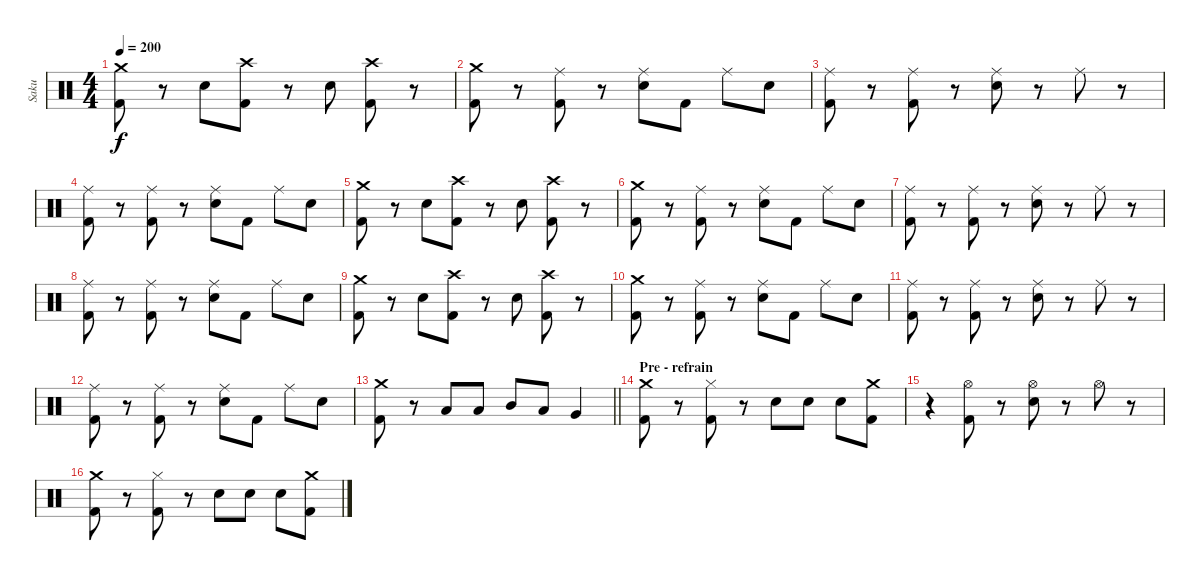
\track ("Saku" "Saku") {instrument percussion}
\staff {score}
\articulation defaults
\ts (4 4)
\tempo 200
\clef neutral
\ks c
("Crash medium (hit)" "Kick (hit) 2").8{dy f} r.8 "Electric Snare (hit)".8 ("Crash high (hit)" "Kick (hit) 2").8 r.8 "Electric Snare (hit)".8 ("Crash high (hit)" "Kick (hit) 2").8 r.8 |
("Crash medium (hit)" "Kick (hit) 2").8 r.8 ("Ride (middle)" "Kick (hit) 2").8 r.8 ("Ride (middle)" "Electric Snare (hit)").8 "Kick (hit) 2".8 "Ride (middle)".8 "Electric Snare (hit)".8 |
("Ride (middle)" "Kick (hit) 2").8 r.8 ("Ride (middle)" "Kick (hit) 2").8 r.8 ("Ride (middle)" "Electric Snare (hit)").8 r.8 "Ride (middle)".8 r.8 |
("Ride (middle)" "Kick (hit) 2").8 r.8 ("Ride (middle)" "Kick (hit) 2").8 r.8 ("Ride (middle)" "Electric Snare (hit)").8 "Kick (hit) 2".8 "Ride (middle)".8 "Electric Snare (hit)".8 |
("Crash medium (hit)" "Kick (hit) 2").8 r.8 "Electric Snare (hit)".8 ("Crash high (hit)" "Kick (hit) 2").8 r.8 "Electric Snare (hit)".8 ("Crash high (hit)" "Kick (hit) 2").8 r.8 |
("Crash medium (hit)" "Kick (hit) 2").8 r.8 ("Ride (middle)" "Kick (hit) 2").8 r.8 ("Ride (middle)" "Electric Snare (hit)").8 "Kick (hit) 2".8 "Ride (middle)".8 "Electric Snare (hit)".8 |
("Ride (middle)" "Kick (hit) 2").8 r.8 ("Ride (middle)" "Kick (hit) 2").8 r.8 ("Ride (middle)" "Electric Snare (hit)").8 r.8 "Ride (middle)".8 r.8 |
("Ride (middle)" "Kick (hit) 2").8 r.8 ("Ride (middle)" "Kick (hit) 2").8 r.8 ("Ride (middle)" "Electric Snare (hit)").8 "Kick (hit) 2".8 "Ride (middle)".8 "Electric Snare (hit)".8 |
("Crash medium (hit)" "Kick (hit) 2").8 r.8 "Electric Snare (hit)".8 ("Crash high (hit)" "Kick (hit) 2").8 r.8 "Electric Snare (hit)".8 ("Crash high (hit)" "Kick (hit) 2").8 r.8 |
("Crash medium (hit)" "Kick (hit) 2").8 r.8 ("Ride (middle)" "Kick (hit) 2").8 r.8 ("Ride (middle)" "Electric Snare (hit)").8 "Kick (hit) 2".8 "Ride (middle)".8 "Electric Snare (hit)".8 |
("Ride (middle)" "Kick (hit) 2").8 r.8 ("Ride (middle)" "Kick (hit) 2").8 r.8 ("Ride (middle)" "Electric Snare (hit)").8 r.8 "Ride (middle)".8 r.8 |
("Ride (middle)" "Kick (hit) 2").8 r.8 ("Ride (middle)" "Kick (hit) 2").8 r.8 ("Ride (middle)" "Electric Snare (hit)").8 "Kick (hit) 2".8 "Ride (middle)".8 "Electric Snare (hit)".8 |
\barLineRight lightlight
("Crash medium (hit)" "Kick (hit) 2").8 r.8 "Low Tom (hit)".8 "Low Tom (hit)".8 "Mid Tom (hit)".8 "Low Tom (hit)".8 "Very Low Tom (hit)".4 |
\section ("" "Pre - refrain")
("Crash medium (hit)" "Kick (hit) 2").8 r.8 ("Hi-Hat (closed)" "Kick (hit) 2").8 r.8 "Electric Snare (hit)".8 "Electric Snare (hit)".8 "Electric Snare (hit)".8 ("Crash medium (hit)" "Kick (hit) 2").8 |
r.4 ("Hi-Hat (open)" "Kick (hit) 2").8 r.8 ("Hi-Hat (open)" "Electric Snare (hit)").8 r.8 "Hi-Hat (open)".8 r.8 |
("Crash medium (hit)" "Kick (hit) 2").8 r.8 ("Hi-Hat (closed)" "Kick (hit) 2").8 r.8 "Electric Snare (hit)".8 "Electric Snare (hit)".8 "Electric Snare (hit)".8 ("Crash medium (hit)" "Kick (hit) 2").8
